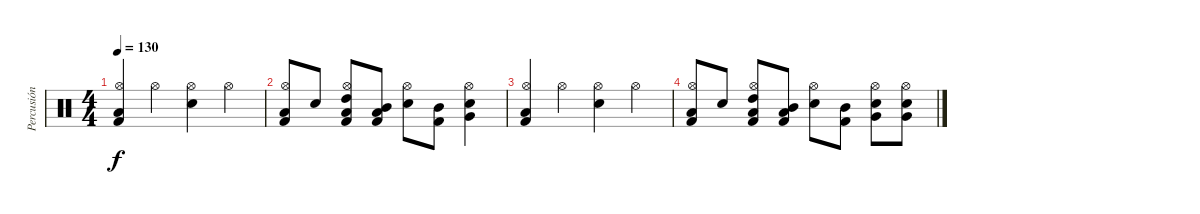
\track ("Percusión" "Percusión") {instrument percussion}
\staff {score}
\articulation defaults
\ts (4 4)
\tempo 130
\clef neutral
\ks c
("Kick (hit) 2" "Hi-Hat (open)" "Low Floor Tom (hit)").4{dy f} "Hi-Hat (open)".4 ("Snare (hit) 2" "Hi-Hat (open)").4 "Hi-Hat (open)".4 |
("Low Floor Tom (hit)" "Kick (hit) 2" "Hi-Hat (open)").8 "Snare (hit) 2".8 ("Low Floor Tom (hit)" "Kick (hit) 2" "Hi-Hat (open)" "High Tom (hit)").8 ("Low Floor Tom (hit)" "Kick (hit) 2" "Mid Tom (hit)").8 ("Snare (hit) 2" "Hi-Hat (open)").8 ("Kick (hit) 2" "Mid Tom (hit)").8 ("Snare (hit) 2" "Hi-Hat (open)" "Very Low Tom (hit)").4 |
("Kick (hit) 2" "Hi-Hat (open)" "Low Floor Tom (hit)").4 "Hi-Hat (open)".4 ("Snare (hit) 2" "Hi-Hat (open)").4 "Hi-Hat (open)".4 |
("Low Floor Tom (hit)" "Kick (hit) 2" "Hi-Hat (open)").8 "Snare (hit) 2".8 ("Low Floor Tom (hit)" "Kick (hit) 2" "Hi-Hat (open)" "High Tom (hit)").8 ("Low Floor Tom (hit)" "Kick (hit) 2" "Mid Tom (hit)").8 ("Snare (hit) 2" "Hi-Hat (open)").8 ("Kick (hit) 2" "Mid Tom (hit)").8 ("Snare (hit) 2" "Hi-Hat (open)" "Very Low Tom (hit)").8 ("Snare (hit) 2" "Hi-Hat (open)" "Very Low Tom (hit)").8
